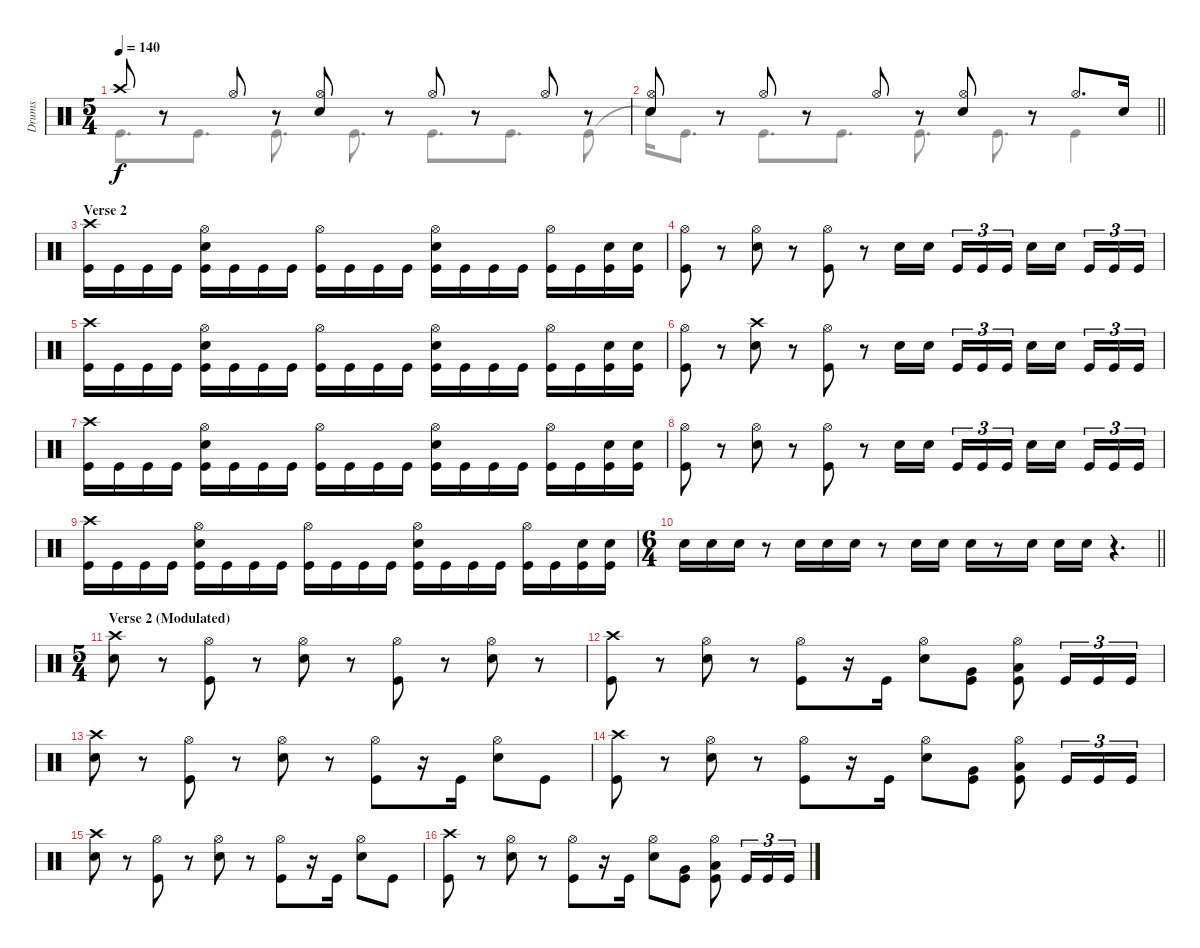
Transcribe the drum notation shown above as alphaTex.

\track ("Drums" "Drums") {instrument percussion}
\staff {score}
\articulation defaults
\voice
\ts (5 4)
\tempo 140
\clef neutral
\ks c "Crash high (hit)".8{dy f}
r.8 "Hi-Hat (open)".8 r.8 ("Hi-Hat (open)" "Snare (hit) 2").8 r.8 "Hi-Hat (open)".8 r.8 "Hi-Hat (open)".8 r.8 |
\barLineRight lightlight
("Hi-Hat (open)" "Snare (hit) 2").8 r.8 "Hi-Hat (open)".8 r.8 "Hi-Hat (open)".8 r.8 ("Hi-Hat (open)" "Snare (hit) 2").8 r.8 "Hi-Hat (open)".8{d} "Snare (hit) 2".16 |
\section ("" "Verse 2")
("Crash high (hit)" "Kick (hit)").16 "Kick (hit)".16 "Kick (hit)".16 "Kick (hit)".16 ("Hi-Hat (open)" "Snare (hit) 2" "Kick (hit)").16 "Kick (hit)".16 "Kick (hit)".16 "Kick (hit)".16 ("Hi-Hat (open)" "Kick (hit)").16 "Kick (hit)".16 "Kick (hit)".16 "Kick (hit)".16 ("Hi-Hat (open)" "Snare (hit) 2" "Kick (hit)").16 "Kick (hit)".16 "Kick (hit)".16 "Kick (hit)".16 ("Hi-Hat (open)" "Kick (hit)").16 "Kick (hit)".16 ("Snare (hit) 2" "Kick (hit)").16 ("Snare (hit) 2" "Kick (hit)").16 |
("Hi-Hat (open)" "Kick (hit)").8 r.8 ("Hi-Hat (open)" "Snare (hit) 2").8 r.8 ("Hi-Hat (open)" "Kick (hit)").8 r.8 "Snare (hit) 2".16 "Snare (hit) 2".16{beam splitsecondary} "Kick (hit)".16{tu (3 2)} "Kick (hit)".16{tu (3 2)} "Kick (hit)".16{tu (3 2)} "Snare (hit) 2".16 "Snare (hit) 2".16{beam splitsecondary} "Kick (hit)".16{tu (3 2)} "Kick (hit)".16{tu (3 2)} "Kick (hit)".16{tu (3 2)} |
("Crash high (hit)" "Kick (hit)").16 "Kick (hit)".16 "Kick (hit)".16 "Kick (hit)".16 ("Hi-Hat (open)" "Snare (hit) 2" "Kick (hit)").16 "Kick (hit)".16 "Kick (hit)".16 "Kick (hit)".16 ("Hi-Hat (open)" "Kick (hit)").16 "Kick (hit)".16 "Kick (hit)".16 "Kick (hit)".16 ("Hi-Hat (open)" "Snare (hit) 2" "Kick (hit)").16 "Kick (hit)".16 "Kick (hit)".16 "Kick (hit)".16 ("Hi-Hat (open)" "Kick (hit)").16 "Kick (hit)".16 ("Snare (hit) 2" "Kick (hit)").16 ("Snare (hit) 2" "Kick (hit)").16 |
("Hi-Hat (open)" "Kick (hit)").8 r.8 ("Crash high (hit)" "Snare (hit) 2").8 r.8 ("Hi-Hat (open)" "Kick (hit)").8 r.8 "Snare (hit) 2".16 "Snare (hit) 2".16{beam splitsecondary} "Kick (hit)".16{tu (3 2)} "Kick (hit)".16{tu (3 2)} "Kick (hit)".16{tu (3 2)} "Snare (hit) 2".16 "Snare (hit) 2".16{beam splitsecondary} "Kick (hit)".16{tu (3 2)} "Kick (hit)".16{tu (3 2)} "Kick (hit)".16{tu (3 2)} |
("Crash high (hit)" "Kick (hit)").16 "Kick (hit)".16 "Kick (hit)".16 "Kick (hit)".16 ("Hi-Hat (open)" "Snare (hit) 2" "Kick (hit)").16 "Kick (hit)".16 "Kick (hit)".16 "Kick (hit)".16 ("Hi-Hat (open)" "Kick (hit)").16 "Kick (hit)".16 "Kick (hit)".16 "Kick (hit)".16 ("Hi-Hat (open)" "Snare (hit) 2" "Kick (hit)").16 "Kick (hit)".16 "Kick (hit)".16 "Kick (hit)".16 ("Hi-Hat (open)" "Kick (hit)").16 "Kick (hit)".16 ("Snare (hit) 2" "Kick (hit)").16 ("Snare (hit) 2" "Kick (hit)").16 |
("Hi-Hat (open)" "Kick (hit)").8 r.8 ("Hi-Hat (open)" "Snare (hit) 2").8 r.8 ("Hi-Hat (open)" "Kick (hit)").8 r.8 "Snare (hit) 2".16 "Snare (hit) 2".16{beam splitsecondary} "Kick (hit)".16{tu (3 2)} "Kick (hit)".16{tu (3 2)} "Kick (hit)".16{tu (3 2)} "Snare (hit) 2".16 "Snare (hit) 2".16{beam splitsecondary} "Kick (hit)".16{tu (3 2)} "Kick (hit)".16{tu (3 2)} "Kick (hit)".16{tu (3 2)} |
("Crash high (hit)" "Kick (hit)").16 "Kick (hit)".16 "Kick (hit)".16 "Kick (hit)".16 ("Hi-Hat (open)" "Snare (hit) 2" "Kick (hit)").16 "Kick (hit)".16 "Kick (hit)".16 "Kick (hit)".16 ("Hi-Hat (open)" "Kick (hit)").16 "Kick (hit)".16 "Kick (hit)".16 "Kick (hit)".16 ("Hi-Hat (open)" "Snare (hit) 2" "Kick (hit)").16 "Kick (hit)".16 "Kick (hit)".16 "Kick (hit)".16 ("Hi-Hat (open)" "Kick (hit)").16 "Kick (hit)".16 ("Snare (hit) 2" "Kick (hit)").16 ("Snare (hit) 2" "Kick (hit)").16 |
\ts (6 4)
\barLineRight lightlight "Snare (hit) 2".16 "Snare (hit) 2".16 "Snare (hit) 2".16
r.8 "Snare (hit) 2".16 "Snare (hit) 2".16 "Snare (hit) 2".16 r.8 "Snare (hit) 2".16 "Snare (hit) 2".16 "Snare (hit) 2".16 r.8 "Snare (hit) 2".16 "Snare (hit) 2".16 "Snare (hit) 2".16 r.4{d} |
\ts (5 4)
\section ("" "Verse 2 (Modulated)")
("Crash high (hit)" "Snare (hit) 2").8 r.8 ("Hi-Hat (open)" "Kick (hit)").8 r.8 ("Hi-Hat (open)" "Snare (hit) 2").8 r.8 ("Hi-Hat (open)" "Kick (hit)").8 r.8 ("Hi-Hat (open)" "Snare (hit) 2").8 r.8 |
("Crash high (hit)" "Kick (hit)").8 r.8 ("Hi-Hat (open)" "Snare (hit) 2").8 r.8 ("Hi-Hat (open)" "Kick (hit)").8 r.16 "Kick (hit)".16 ("Hi-Hat (open)" "Snare (hit) 2").8 ("Very Low Tom (hit)" "Kick (hit)").8 ("Hi-Hat (open)" "Low Tom (hit)" "Kick (hit)").8 "Kick (hit)".16{tu (3 2)} "Kick (hit)".16{tu (3 2)} "Kick (hit)".16{tu (3 2)} |
("Crash high (hit)" "Snare (hit) 2").8 r.8 ("Hi-Hat (open)" "Kick (hit)").8 r.8 ("Hi-Hat (open)" "Snare (hit) 2").8 r.8 ("Hi-Hat (open)" "Kick (hit)").8 r.16 "Kick (hit)".16 ("Hi-Hat (open)" "Snare (hit) 2").8 "Kick (hit)".8 |
("Crash high (hit)" "Kick (hit)").8 r.8 ("Hi-Hat (open)" "Snare (hit) 2").8 r.8 ("Hi-Hat (open)" "Kick (hit)").8 r.16 "Kick (hit)".16 ("Hi-Hat (open)" "Snare (hit) 2").8 ("Very Low Tom (hit)" "Kick (hit)").8 ("Hi-Hat (open)" "Low Tom (hit)" "Kick (hit)").8 "Kick (hit)".16{tu (3 2)} "Kick (hit)".16{tu (3 2)} "Kick (hit)".16{tu (3 2)} |
("Crash high (hit)" "Snare (hit) 2").8 r.8 ("Hi-Hat (open)" "Kick (hit)").8 r.8 ("Hi-Hat (open)" "Snare (hit) 2").8 r.8 ("Hi-Hat (open)" "Kick (hit)").8 r.16 "Kick (hit)".16 ("Hi-Hat (open)" "Snare (hit) 2").8 "Kick (hit)".8 |
("Crash high (hit)" "Kick (hit)").8 r.8 ("Hi-Hat (open)" "Snare (hit) 2").8 r.8 ("Hi-Hat (open)" "Kick (hit)").8 r.16 "Kick (hit)".16 ("Hi-Hat (open)" "Snare (hit) 2").8 ("Very Low Tom (hit)" "Kick (hit)").8 ("Hi-Hat (open)" "Low Tom (hit)" "Kick (hit)").8 "Kick (hit)".16{tu (3 2)} "Kick (hit)".16{tu (3 2)} "Kick (hit)".16{tu (3 2)}
\voice
\clef neutral
\ottava regular
\simile none
\ks c "Kick (hit)".8{d dy f} "Kick (hit)".8{d} "Kick (hit)".8{d} "Kick (hit)".8{d} "Kick (hit)".8{d} "Kick (hit)".8{d} "Kick (hit)".8
|
\barLineRight lightlight "Snare (hit)"{t}.16 "Kick (hit)".8{d} "Kick (hit)".8{d} "Kick (hit)".8{d} "Kick (hit)".8{d} "Kick (hit)".8{d} "Kick (hit)".4
|
|
|
|
|
|
|
|
\barLineRight lightlight
|
|
|
|
|
|
